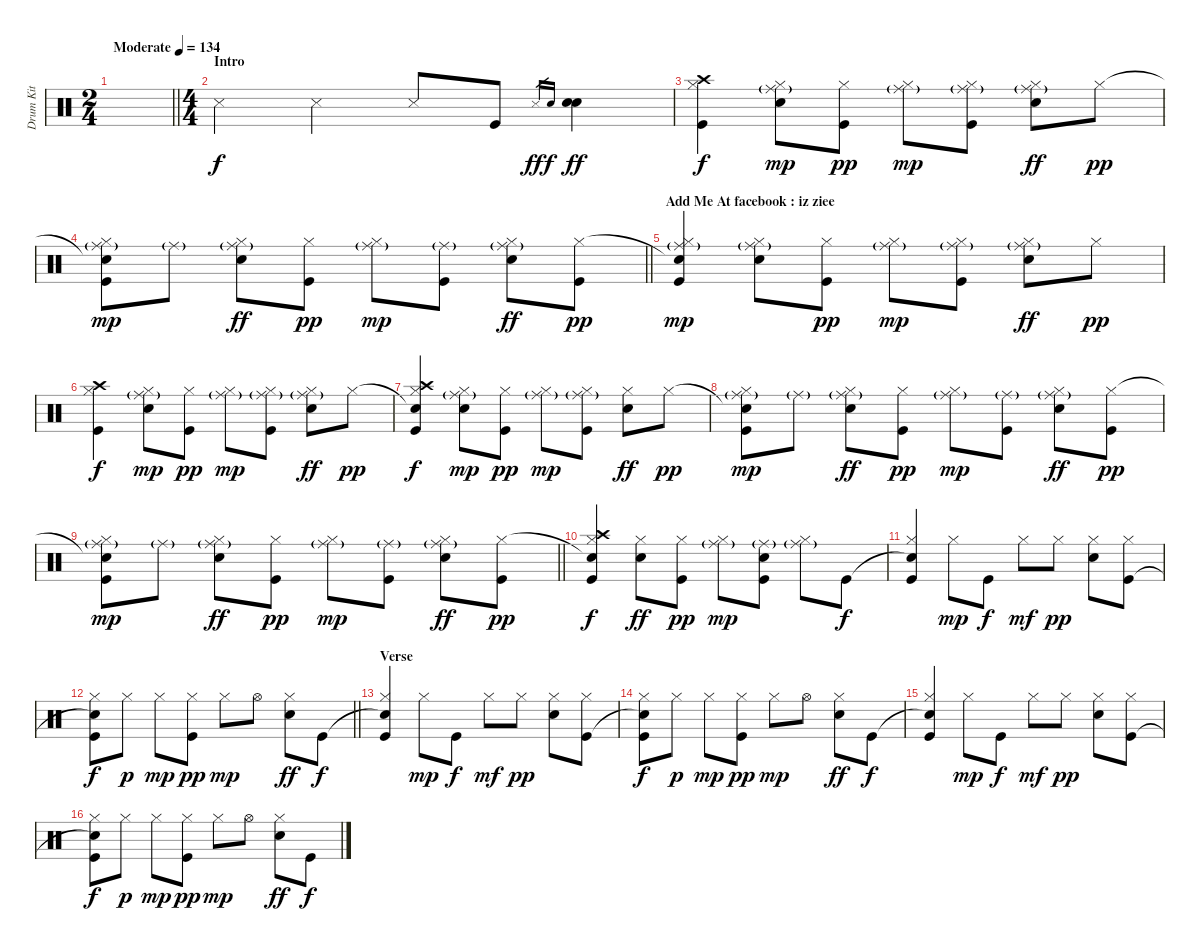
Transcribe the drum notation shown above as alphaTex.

\track ("Drum Kit" "Drum Kit") {instrument percussion}
\staff {score}
\articulation defaults
\ts (2 4)
\tempo (134 "Moderate")
\clef neutral
\barLineRight lightlight
\ks c
|
\ts (4 4)
\section ("" "Intro")
"Metronome (hit)".4 "Metronome (hit)".4 "Metronome (hit)".8 "Kick (hit)".8{dy f} "Metronome (hit)".16{gr dy ff} "Electric Snare (hit)".16{gr dy f} ("Electric Snare (hit)" "Electric Snare (hit)").4{dy ff} |
("Kick (hit)" "Hi-Hat (closed)" "Crash high (hit)").4{dy f} ("Hi-Hat (closed)" "Electric Snare (hit)" "Ride (middle)"{g}).8{dy mp} ("Kick (hit)" "Hi-Hat (closed)").8{dy pp} ("Hi-Hat (closed)" "Ride (middle)"{g}).8{dy mp} ("Hi-Hat (closed)" "Kick (hit)" "Ride (middle)"{g}).8 ("Ride (middle)"{g} "Hi-Hat (closed)" "Electric Snare (hit)").8{dy ff} "Hi-Hat (closed)".8{dy pp} |
\barLineRight lightlight
("Snare (hit)"{t} "Ride (middle)"{g} "Hi-Hat (closed)" "Kick (hit)").8{dy mp} "Ride (middle)"{g}.8 ("Ride (middle)"{g} "Hi-Hat (closed)" "Electric Snare (hit)").8{dy ff} ("Hi-Hat (closed)" "Kick (hit)").8{dy pp} ("Ride (middle)"{g} "Hi-Hat (closed)").8{dy mp} ("Kick (hit)" "Ride (middle)"{g}).8 ("Ride (middle)"{g} "Hi-Hat (closed)" "Electric Snare (hit)").8{dy ff} ("Hi-Hat (closed)" "Kick (hit)").8{dy pp} |
\section ("" "Add Me At facebook : iz ziee")
("Snare (hit)"{t} "Ride (middle)"{g} "Kick (hit)" "Hi-Hat (closed)").4{dy mp} ("Hi-Hat (closed)" "Electric Snare (hit)" "Ride (middle)"{g}).8 ("Kick (hit)" "Hi-Hat (closed)").8{dy pp} ("Hi-Hat (closed)" "Ride (middle)"{g}).8{dy mp} ("Hi-Hat (closed)" "Kick (hit)" "Ride (middle)"{g}).8 ("Ride (middle)"{g} "Hi-Hat (closed)" "Electric Snare (hit)").8{dy ff} "Hi-Hat (closed)".8{dy pp} |
("Kick (hit)" "Hi-Hat (closed)" "Crash high (hit)").4{dy f} ("Hi-Hat (closed)" "Electric Snare (hit)" "Ride (middle)"{g}).8{dy mp} ("Kick (hit)" "Hi-Hat (closed)").8{dy pp} ("Hi-Hat (closed)" "Ride (middle)"{g}).8{dy mp} ("Hi-Hat (closed)" "Kick (hit)" "Ride (middle)"{g}).8 ("Ride (middle)"{g} "Hi-Hat (closed)" "Electric Snare (hit)").8{dy ff} "Hi-Hat (closed)".8{dy pp} |
("Snare (hit)"{t} "Crash high (hit)" "Kick (hit)" "Hi-Hat (closed)").4{dy f} ("Hi-Hat (closed)" "Electric Snare (hit)" "Ride (middle)"{g}).8{dy mp} ("Kick (hit)" "Hi-Hat (closed)").8{dy pp} ("Hi-Hat (closed)" "Ride (middle)"{g}).8{dy mp} ("Hi-Hat (closed)" "Kick (hit)" "Ride (middle)"{g}).8 ("Hi-Hat (closed)" "Electric Snare (hit)").8{dy ff} "Hi-Hat (closed)".8{dy pp} |
("Snare (hit)"{t} "Ride (middle)"{g} "Hi-Hat (closed)" "Kick (hit)").8{dy mp} "Ride (middle)"{g}.8 ("Ride (middle)"{g} "Hi-Hat (closed)" "Electric Snare (hit)").8{dy ff} ("Hi-Hat (closed)" "Kick (hit)").8{dy pp} ("Ride (middle)"{g} "Hi-Hat (closed)").8{dy mp} ("Kick (hit)" "Ride (middle)"{g}).8 ("Ride (middle)"{g} "Hi-Hat (closed)" "Electric Snare (hit)").8{dy ff} ("Hi-Hat (closed)" "Kick (hit)").8{dy pp} |
\barLineRight lightlight
("Snare (hit)"{t} "Ride (middle)"{g} "Hi-Hat (closed)" "Kick (hit)").8{dy mp} "Ride (middle)"{g}.8 ("Ride (middle)"{g} "Hi-Hat (closed)" "Electric Snare (hit)").8{dy ff} ("Hi-Hat (closed)" "Kick (hit)").8{dy pp} ("Ride (middle)"{g} "Hi-Hat (closed)").8{dy mp} ("Kick (hit)" "Ride (middle)"{g}).8 ("Ride (middle)"{g} "Hi-Hat (closed)" "Electric Snare (hit)").8{dy ff} ("Hi-Hat (closed)" "Kick (hit)").8{dy pp} |
("Snare (hit)"{t} "Hi-Hat (closed)" "Kick (hit)" "Crash high (hit)").4{dy f} ("Hi-Hat (closed)" "Electric Snare (hit)").8{dy ff} ("Hi-Hat (closed)" "Kick (hit)").8{dy pp} ("Ride (middle)"{g} "Hi-Hat (closed)").8{dy mp} ("Electric Snare (hit)" "Kick (hit)" "Ride (middle)"{g}).8 ("Ride (middle)"{g} "Hi-Hat (closed)").8 "Kick (hit)".8{dy f} |
("Snare (hit)"{t} "Kick (hit)" "Hi-Hat (closed)").4 "Hi-Hat (closed)".8{dy mp} "Kick (hit)".8{dy f} "Hi-Hat (closed)".8{dy mf} "Hi-Hat (closed)".8{dy pp} ("Electric Snare (hit)" "Hi-Hat (closed)").8 ("Kick (hit)" "Hi-Hat (closed)").8 |
\barLineRight lightlight
("Snare (hit)"{t} "Hi-Hat (closed)" "Kick (hit)").8{dy f} "Hi-Hat (closed)".8{dy p} "Hi-Hat (closed)".8{dy mp} ("Hi-Hat (closed)" "Kick (hit)").8{dy pp} "Hi-Hat (closed)".8{dy mp} "Hi-Hat (open)".8 ("Hi-Hat (closed)" "Electric Snare (hit)").8{dy ff} "Kick (hit)".8{dy f} |
\section ("" "Verse")
("Snare (hit)"{t} "Kick (hit)" "Hi-Hat (closed)").4 "Hi-Hat (closed)".8{dy mp} "Kick (hit)".8{dy f} "Hi-Hat (closed)".8{dy mf} "Hi-Hat (closed)".8{dy pp} ("Electric Snare (hit)" "Hi-Hat (closed)").8 ("Kick (hit)" "Hi-Hat (closed)").8 |
("Snare (hit)"{t} "Hi-Hat (closed)" "Kick (hit)").8{dy f} "Hi-Hat (closed)".8{dy p} "Hi-Hat (closed)".8{dy mp} ("Hi-Hat (closed)" "Kick (hit)").8{dy pp} "Hi-Hat (closed)".8{dy mp} "Hi-Hat (open)".8 ("Hi-Hat (closed)" "Electric Snare (hit)").8{dy ff} "Kick (hit)".8{dy f} |
("Snare (hit)"{t} "Kick (hit)" "Hi-Hat (closed)").4 "Hi-Hat (closed)".8{dy mp} "Kick (hit)".8{dy f} "Hi-Hat (closed)".8{dy mf} "Hi-Hat (closed)".8{dy pp} ("Electric Snare (hit)" "Hi-Hat (closed)").8 ("Kick (hit)" "Hi-Hat (closed)").8 |
("Snare (hit)"{t} "Hi-Hat (closed)" "Kick (hit)").8{dy f} "Hi-Hat (closed)".8{dy p} "Hi-Hat (closed)".8{dy mp} ("Hi-Hat (closed)" "Kick (hit)").8{dy pp} "Hi-Hat (closed)".8{dy mp} "Hi-Hat (open)".8 ("Hi-Hat (closed)" "Electric Snare (hit)").8{dy ff} "Kick (hit)".8{dy f}
